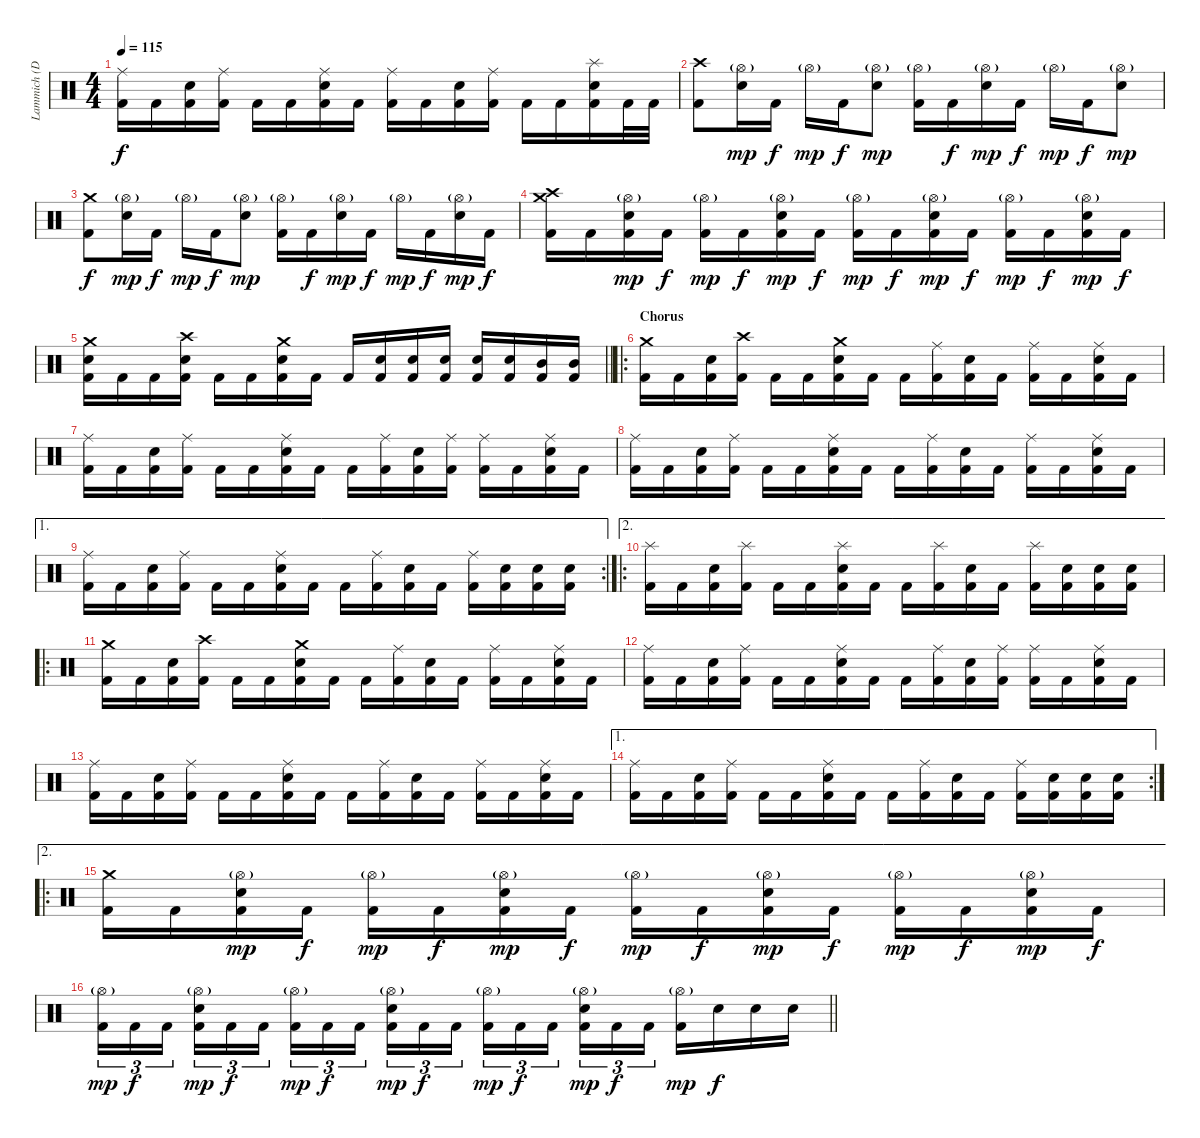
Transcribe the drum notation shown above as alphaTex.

\track ("Lammich (Drums)" "Lammich (D") {instrument percussion}
\staff {score}
\articulation defaults
\ts (4 4)
\tempo 115
\clef neutral
\ks c
("Ride (middle)" "Kick (hit) 2").16{dy f} "Kick (hit) 2".16 ("Electric Snare (hit)" "Kick (hit) 2").16 ("Ride (middle)" "Kick (hit) 2").16 "Kick (hit) 2".16 "Kick (hit) 2".16 ("Ride (middle)" "Electric Snare (hit)" "Kick (hit) 2").16 "Kick (hit) 2".16 ("Ride (middle)" "Kick (hit) 2").16 "Kick (hit) 2".16 ("Electric Snare (hit)" "Kick (hit) 2").16 ("Ride (middle)" "Kick (hit) 2").16 "Kick (hit) 2".16 "Kick (hit) 2".16 ("Splash (hit)" "Electric Snare (hit)" "Kick (hit) 2").16 "Kick (hit) 2".32 "Kick (hit) 2".32 |
("Crash high (hit)" "Kick (hit) 2").8 ("Hi-Hat (open)"{g} "Electric Snare (hit)").16{dy mp} "Kick (hit) 2".16{dy f} "Hi-Hat (open)"{g}.16{dy mp} "Kick (hit) 2".16{dy f} ("Hi-Hat (open)"{g} "Electric Snare (hit)").8{dy mp} ("Hi-Hat (open)"{g} "Kick (hit) 2").16 "Kick (hit) 2".16{dy f} ("Hi-Hat (open)"{g} "Electric Snare (hit)").16{dy mp} "Kick (hit) 2".16{dy f} "Hi-Hat (open)"{g}.16{dy mp} "Kick (hit) 2".16{dy f} ("Hi-Hat (open)"{g} "Electric Snare (hit)").8{dy mp} |
("Crash medium (hit)" "Kick (hit) 2").8{dy f} ("Hi-Hat (open)"{g} "Electric Snare (hit)").16{dy mp} "Kick (hit) 2".16{dy f} "Hi-Hat (open)"{g}.16{dy mp} "Kick (hit) 2".16{dy f} ("Hi-Hat (open)"{g} "Electric Snare (hit)").8{dy mp} ("Hi-Hat (open)"{g} "Kick (hit) 2").16 "Kick (hit) 2".16{dy f} ("Hi-Hat (open)"{g} "Electric Snare (hit)").16{dy mp} "Kick (hit) 2".16{dy f} "Hi-Hat (open)"{g}.16{dy mp} "Kick (hit) 2".16{dy f} ("Hi-Hat (open)"{g} "Electric Snare (hit)").16{dy mp} "Kick (hit) 2".16{dy f} |
("Crash medium (hit)" "Crash high (hit)" "Kick (hit) 2").16 "Kick (hit) 2".16 ("Hi-Hat (open)"{g} "Electric Snare (hit)" "Kick (hit) 2").16{dy mp} "Kick (hit) 2".16{dy f} ("Hi-Hat (open)"{g} "Kick (hit) 2").16{dy mp} "Kick (hit) 2".16{dy f} ("Hi-Hat (open)"{g} "Electric Snare (hit)" "Kick (hit) 2").16{dy mp} "Kick (hit) 2".16{dy f} ("Hi-Hat (open)"{g} "Kick (hit) 2").16{dy mp} "Kick (hit) 2".16{dy f} ("Hi-Hat (open)"{g} "Electric Snare (hit)" "Kick (hit) 2").16{dy mp} "Kick (hit) 2".16{dy f} ("Hi-Hat (open)"{g} "Kick (hit) 2").16{dy mp} "Kick (hit) 2".16{dy f} ("Hi-Hat (open)"{g} "Electric Snare (hit)" "Kick (hit) 2").16{dy mp} "Kick (hit) 2".16{dy f} |
\barLineRight lightlight
("Crash medium (hit)" "Electric Snare (hit)" "Kick (hit) 2").16 "Kick (hit) 2".16 "Kick (hit) 2".16 ("Crash high (hit)" "Electric Snare (hit)" "Kick (hit) 2").16 "Kick (hit) 2".16 "Kick (hit) 2".16 ("Crash medium (hit)" "Electric Snare (hit)" "Kick (hit) 2").16 "Kick (hit) 2".16 "Kick (hit) 2".16 ("Electric Snare (hit)" "Kick (hit) 2").16 ("Electric Snare (hit)" "Kick (hit) 2").16 ("Electric Snare (hit)" "Kick (hit) 2").16 ("Electric Snare (hit)" "Kick (hit) 2").16 ("Electric Snare (hit)" "Kick (hit) 2").16 ("Mid Tom (hit)" "Kick (hit) 2").16 ("Mid Tom (hit)" "Kick (hit) 2").16 |
\ro
\section ("" "Chorus")
("Crash medium (hit)" "Kick (hit) 2").16 "Kick (hit) 2".16 ("Electric Snare (hit)" "Kick (hit) 2").16 ("Crash high (hit)" "Kick (hit) 2").16 "Kick (hit) 2".16 "Kick (hit) 2".16 ("Crash medium (hit)" "Electric Snare (hit)" "Kick (hit) 2").16 "Kick (hit) 2".16 "Kick (hit) 2".16 ("Ride (middle)" "Kick (hit) 2").16 ("Electric Snare (hit)" "Kick (hit) 2").16 "Kick (hit) 2".16 ("Ride (middle)" "Kick (hit) 2").16 "Kick (hit) 2".16 ("Ride (middle)" "Electric Snare (hit)" "Kick (hit) 2").16 "Kick (hit) 2".16 |
("Ride (middle)" "Kick (hit) 2").16 "Kick (hit) 2".16 ("Electric Snare (hit)" "Kick (hit) 2").16 ("Ride (middle)" "Kick (hit) 2").16 "Kick (hit) 2".16 "Kick (hit) 2".16 ("Ride (middle)" "Electric Snare (hit)" "Kick (hit) 2").16 "Kick (hit) 2".16 "Kick (hit) 2".16 ("Ride (middle)" "Kick (hit) 2").16 ("Electric Snare (hit)" "Kick (hit) 2").16 ("Ride (middle)" "Kick (hit) 2").16 ("Ride (middle)" "Kick (hit) 2").16 "Kick (hit) 2".16 ("Ride (middle)" "Electric Snare (hit)" "Kick (hit) 2").16 "Kick (hit) 2".16 |
("Ride (middle)" "Kick (hit) 2").16 "Kick (hit) 2".16 ("Electric Snare (hit)" "Kick (hit) 2").16 ("Ride (middle)" "Kick (hit) 2").16 "Kick (hit) 2".16 "Kick (hit) 2".16 ("Ride (middle)" "Electric Snare (hit)" "Kick (hit) 2").16 "Kick (hit) 2".16 "Kick (hit) 2".16 ("Ride (middle)" "Kick (hit) 2").16 ("Electric Snare (hit)" "Kick (hit) 2").16 "Kick (hit) 2".16 ("Ride (middle)" "Kick (hit) 2").16 "Kick (hit) 2".16 ("Ride (middle)" "Electric Snare (hit)" "Kick (hit) 2").16 "Kick (hit) 2".16 |
\ae 1
\rc 2
("Ride (middle)" "Kick (hit) 2").16 "Kick (hit) 2".16 ("Electric Snare (hit)" "Kick (hit) 2").16 ("Ride (middle)" "Kick (hit) 2").16 "Kick (hit) 2".16 "Kick (hit) 2".16 ("Ride (middle)" "Electric Snare (hit)" "Kick (hit) 2").16 "Kick (hit) 2".16 "Kick (hit) 2".16 ("Ride (middle)" "Kick (hit) 2").16 ("Electric Snare (hit)" "Kick (hit) 2").16 "Kick (hit) 2".16 ("Ride (middle)" "Kick (hit) 2").16 ("Electric Snare (hit)" "Kick (hit) 2").16 ("Electric Snare (hit)" "Kick (hit) 2").16 ("Electric Snare (hit)" "Kick (hit) 2").16 |
\ae 2
\ro
("Splash (hit)" "Kick (hit) 2").16 "Kick (hit) 2".16 ("Electric Snare (hit)" "Kick (hit) 2").16 ("Splash (hit)" "Kick (hit) 2").16 "Kick (hit) 2".16 "Kick (hit) 2".16 ("Splash (hit)" "Electric Snare (hit)" "Kick (hit) 2").16 "Kick (hit) 2".16 "Kick (hit) 2".16 ("Splash (hit)" "Kick (hit) 2").16 ("Electric Snare (hit)" "Kick (hit) 2").16 "Kick (hit) 2".16 ("Splash (hit)" "Kick (hit) 2").16 ("Electric Snare (hit)" "Kick (hit) 2").16 ("Electric Snare (hit)" "Kick (hit) 2").16 ("Electric Snare (hit)" "Kick (hit) 2").16 |
\ro
("Crash medium (hit)" "Kick (hit) 2").16 "Kick (hit) 2".16 ("Electric Snare (hit)" "Kick (hit) 2").16 ("Crash high (hit)" "Kick (hit) 2").16 "Kick (hit) 2".16 "Kick (hit) 2".16 ("Crash medium (hit)" "Electric Snare (hit)" "Kick (hit) 2").16 "Kick (hit) 2".16 "Kick (hit) 2".16 ("Ride (middle)" "Kick (hit) 2").16 ("Electric Snare (hit)" "Kick (hit) 2").16 "Kick (hit) 2".16 ("Ride (middle)" "Kick (hit) 2").16 "Kick (hit) 2".16 ("Ride (middle)" "Electric Snare (hit)" "Kick (hit) 2").16 "Kick (hit) 2".16 |
("Ride (middle)" "Kick (hit) 2").16 "Kick (hit) 2".16 ("Electric Snare (hit)" "Kick (hit) 2").16 ("Ride (middle)" "Kick (hit) 2").16 "Kick (hit) 2".16 "Kick (hit) 2".16 ("Ride (middle)" "Electric Snare (hit)" "Kick (hit) 2").16 "Kick (hit) 2".16 "Kick (hit) 2".16 ("Ride (middle)" "Kick (hit) 2").16 ("Electric Snare (hit)" "Kick (hit) 2").16 ("Ride (middle)" "Kick (hit) 2").16 ("Ride (middle)" "Kick (hit) 2").16 "Kick (hit) 2".16 ("Ride (middle)" "Electric Snare (hit)" "Kick (hit) 2").16 "Kick (hit) 2".16 |
("Ride (middle)" "Kick (hit) 2").16 "Kick (hit) 2".16 ("Electric Snare (hit)" "Kick (hit) 2").16 ("Ride (middle)" "Kick (hit) 2").16 "Kick (hit) 2".16 "Kick (hit) 2".16 ("Ride (middle)" "Electric Snare (hit)" "Kick (hit) 2").16 "Kick (hit) 2".16 "Kick (hit) 2".16 ("Ride (middle)" "Kick (hit) 2").16 ("Electric Snare (hit)" "Kick (hit) 2").16 "Kick (hit) 2".16 ("Ride (middle)" "Kick (hit) 2").16 "Kick (hit) 2".16 ("Ride (middle)" "Electric Snare (hit)" "Kick (hit) 2").16 "Kick (hit) 2".16 |
\ae 1
\rc 2
("Ride (middle)" "Kick (hit) 2").16 "Kick (hit) 2".16 ("Electric Snare (hit)" "Kick (hit) 2").16 ("Ride (middle)" "Kick (hit) 2").16 "Kick (hit) 2".16 "Kick (hit) 2".16 ("Ride (middle)" "Electric Snare (hit)" "Kick (hit) 2").16 "Kick (hit) 2".16 "Kick (hit) 2".16 ("Ride (middle)" "Kick (hit) 2").16 ("Electric Snare (hit)" "Kick (hit) 2").16 "Kick (hit) 2".16 ("Ride (middle)" "Kick (hit) 2").16 ("Electric Snare (hit)" "Kick (hit) 2").16 ("Electric Snare (hit)" "Kick (hit) 2").16 ("Electric Snare (hit)" "Kick (hit) 2").16 |
\ae 2
\ro
("Crash medium (hit)" "Kick (hit) 2").16 "Kick (hit) 2".16 ("Hi-Hat (open)"{g} "Electric Snare (hit)" "Kick (hit) 2").16{dy mp} "Kick (hit) 2".16{dy f} ("Hi-Hat (open)"{g} "Kick (hit) 2").16{dy mp} "Kick (hit) 2".16{dy f} ("Hi-Hat (open)"{g} "Electric Snare (hit)" "Kick (hit) 2").16{dy mp} "Kick (hit) 2".16{dy f} ("Hi-Hat (open)"{g} "Kick (hit) 2").16{dy mp} "Kick (hit) 2".16{dy f} ("Hi-Hat (open)"{g} "Electric Snare (hit)" "Kick (hit) 2").16{dy mp} "Kick (hit) 2".16{dy f} ("Hi-Hat (open)"{g} "Kick (hit) 2").16{dy mp} "Kick (hit) 2".16{dy f} ("Hi-Hat (open)"{g} "Electric Snare (hit)" "Kick (hit) 2").16{dy mp} "Kick (hit) 2".16{dy f} |
\barLineRight lightlight
("Hi-Hat (open)"{g} "Kick (hit) 2").16{tu (3 2) dy mp} "Kick (hit) 2".16{tu (3 2) dy f} "Kick (hit) 2".16{tu (3 2) beam splitsecondary} ("Hi-Hat (open)"{g} "Electric Snare (hit)" "Kick (hit) 2").16{tu (3 2) dy mp} "Kick (hit) 2".16{tu (3 2) dy f} "Kick (hit) 2".16{tu (3 2)} ("Hi-Hat (open)"{g} "Kick (hit) 2").16{tu (3 2) dy mp} "Kick (hit) 2".16{tu (3 2) dy f} "Kick (hit) 2".16{tu (3 2) beam splitsecondary} ("Hi-Hat (open)"{g} "Electric Snare (hit)" "Kick (hit) 2").16{tu (3 2) dy mp} "Kick (hit) 2".16{tu (3 2) dy f} "Kick (hit) 2".16{tu (3 2)} ("Hi-Hat (open)"{g} "Kick (hit) 2").16{tu (3 2) dy mp} "Kick (hit) 2".16{tu (3 2) dy f} "Kick (hit) 2".16{tu (3 2) beam splitsecondary} ("Hi-Hat (open)"{g} "Electric Snare (hit)" "Kick (hit) 2").16{tu (3 2) dy mp} "Kick (hit) 2".16{tu (3 2) dy f} "Kick (hit) 2".16{tu (3 2)} ("Hi-Hat (open)"{g} "Kick (hit) 2").16{dy mp} "Electric Snare (hit)".16{dy f} "Electric Snare (hit)".16 "Electric Snare (hit)".16
